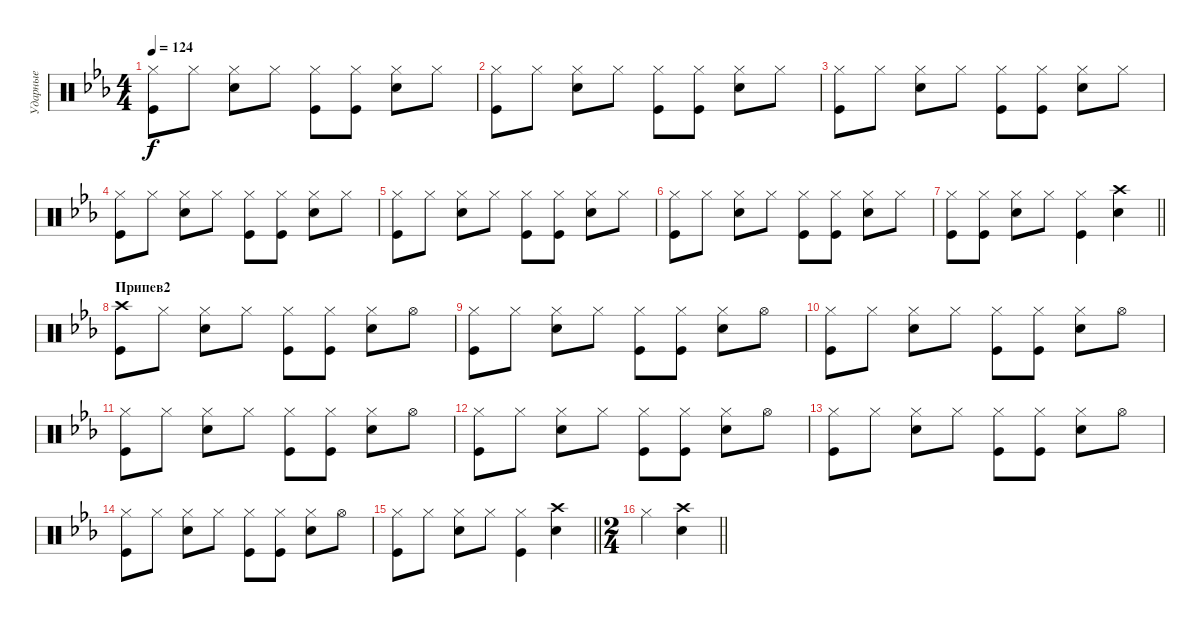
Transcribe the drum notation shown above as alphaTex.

\track ("Ударные" "Ударные") {instrument percussion}
\staff {score}
\articulation defaults
\ts (4 4)
\tempo 124
\clef neutral
\ks cminor
("Hi-Hat (closed)" "Kick (hit)").8{dy f} "Hi-Hat (closed)".8 ("Hi-Hat (closed)" "Snare (hit) 2").8 "Hi-Hat (closed)".8 ("Hi-Hat (closed)" "Kick (hit)").8 ("Hi-Hat (closed)" "Kick (hit)").8 ("Hi-Hat (closed)" "Snare (hit) 2").8 "Hi-Hat (closed)".8 |
("Hi-Hat (closed)" "Kick (hit)").8 "Hi-Hat (closed)".8 ("Hi-Hat (closed)" "Snare (hit) 2").8 "Hi-Hat (closed)".8 ("Hi-Hat (closed)" "Kick (hit)").8 ("Hi-Hat (closed)" "Kick (hit)").8 ("Hi-Hat (closed)" "Snare (hit) 2").8 "Hi-Hat (closed)".8 |
("Hi-Hat (closed)" "Kick (hit)").8 "Hi-Hat (closed)".8 ("Hi-Hat (closed)" "Snare (hit) 2").8 "Hi-Hat (closed)".8 ("Hi-Hat (closed)" "Kick (hit)").8 ("Hi-Hat (closed)" "Kick (hit)").8 ("Hi-Hat (closed)" "Snare (hit) 2").8 "Hi-Hat (closed)".8 |
("Hi-Hat (closed)" "Kick (hit)").8 "Hi-Hat (closed)".8 ("Hi-Hat (closed)" "Snare (hit) 2").8 "Hi-Hat (closed)".8 ("Hi-Hat (closed)" "Kick (hit)").8 ("Hi-Hat (closed)" "Kick (hit)").8 ("Hi-Hat (closed)" "Snare (hit) 2").8 "Hi-Hat (closed)".8 |
("Hi-Hat (closed)" "Kick (hit)").8 "Hi-Hat (closed)".8 ("Hi-Hat (closed)" "Snare (hit) 2").8 "Hi-Hat (closed)".8 ("Hi-Hat (closed)" "Kick (hit)").8 ("Hi-Hat (closed)" "Kick (hit)").8 ("Hi-Hat (closed)" "Snare (hit) 2").8 "Hi-Hat (closed)".8 |
("Hi-Hat (closed)" "Kick (hit)").8 "Hi-Hat (closed)".8 ("Hi-Hat (closed)" "Snare (hit) 2").8 "Hi-Hat (closed)".8 ("Hi-Hat (closed)" "Kick (hit)").8 ("Hi-Hat (closed)" "Kick (hit)").8 ("Hi-Hat (closed)" "Snare (hit) 2").8 "Hi-Hat (closed)".8 |
\barLineRight lightlight
("Hi-Hat (closed)" "Kick (hit)").8 ("Hi-Hat (closed)" "Kick (hit)").8 ("Hi-Hat (closed)" "Snare (hit) 2").8 "Hi-Hat (closed)".8 ("Kick (hit)" "Hi-Hat (closed)").4 ("Crash high (hit)" "Snare (hit) 2").4 |
\section ("" "Припев2")
("Crash high (hit)" "Kick (hit)").8 "Hi-Hat (closed)".8 ("Hi-Hat (closed)" "Snare (hit) 2").8 "Hi-Hat (closed)".8 ("Hi-Hat (closed)" "Kick (hit)").8 ("Hi-Hat (closed)" "Kick (hit)").8 ("Hi-Hat (closed)" "Snare (hit) 2").8 "Hi-Hat (open)".8 |
("Hi-Hat (closed)" "Kick (hit)").8 "Hi-Hat (closed)".8 ("Snare (hit) 2" "Hi-Hat (closed)").8 "Hi-Hat (closed)".8 ("Hi-Hat (closed)" "Kick (hit)").8 ("Hi-Hat (closed)" "Kick (hit)").8 ("Hi-Hat (closed)" "Snare (hit) 2").8 "Hi-Hat (open)".8 |
("Hi-Hat (closed)" "Kick (hit)").8 "Hi-Hat (closed)".8 ("Snare (hit) 2" "Hi-Hat (closed)").8 "Hi-Hat (closed)".8 ("Hi-Hat (closed)" "Kick (hit)").8 ("Hi-Hat (closed)" "Kick (hit)").8 ("Hi-Hat (closed)" "Snare (hit) 2").8 "Hi-Hat (open)".8 |
("Hi-Hat (closed)" "Kick (hit)").8 "Hi-Hat (closed)".8 ("Snare (hit) 2" "Hi-Hat (closed)").8 "Hi-Hat (closed)".8 ("Hi-Hat (closed)" "Kick (hit)").8 ("Hi-Hat (closed)" "Kick (hit)").8 ("Hi-Hat (closed)" "Snare (hit) 2").8 "Hi-Hat (open)".8 |
("Hi-Hat (closed)" "Kick (hit)").8 "Hi-Hat (closed)".8 ("Snare (hit) 2" "Hi-Hat (closed)").8 "Hi-Hat (closed)".8 ("Hi-Hat (closed)" "Kick (hit)").8 ("Hi-Hat (closed)" "Kick (hit)").8 ("Hi-Hat (closed)" "Snare (hit) 2").8 "Hi-Hat (open)".8 |
("Hi-Hat (closed)" "Kick (hit)").8 "Hi-Hat (closed)".8 ("Snare (hit) 2" "Hi-Hat (closed)").8 "Hi-Hat (closed)".8 ("Hi-Hat (closed)" "Kick (hit)").8 ("Hi-Hat (closed)" "Kick (hit)").8 ("Hi-Hat (closed)" "Snare (hit) 2").8 "Hi-Hat (open)".8 |
("Hi-Hat (closed)" "Kick (hit)").8 "Hi-Hat (closed)".8 ("Snare (hit) 2" "Hi-Hat (closed)").8 "Hi-Hat (closed)".8 ("Hi-Hat (closed)" "Kick (hit)").8 ("Hi-Hat (closed)" "Kick (hit)").8 ("Hi-Hat (closed)" "Snare (hit) 2").8 "Hi-Hat (open)".8 |
\barLineRight lightlight
("Hi-Hat (closed)" "Kick (hit)").8 "Hi-Hat (closed)".8 ("Snare (hit) 2" "Hi-Hat (closed)").8 "Hi-Hat (closed)".8 ("Kick (hit)" "Hi-Hat (closed)").4 ("Crash high (hit)" "Snare (hit) 2").4 |
\ts (2 4)
\barLineRight lightlight "Hi-Hat (closed)".4
("Snare (hit) 2" "Crash high (hit)").4
